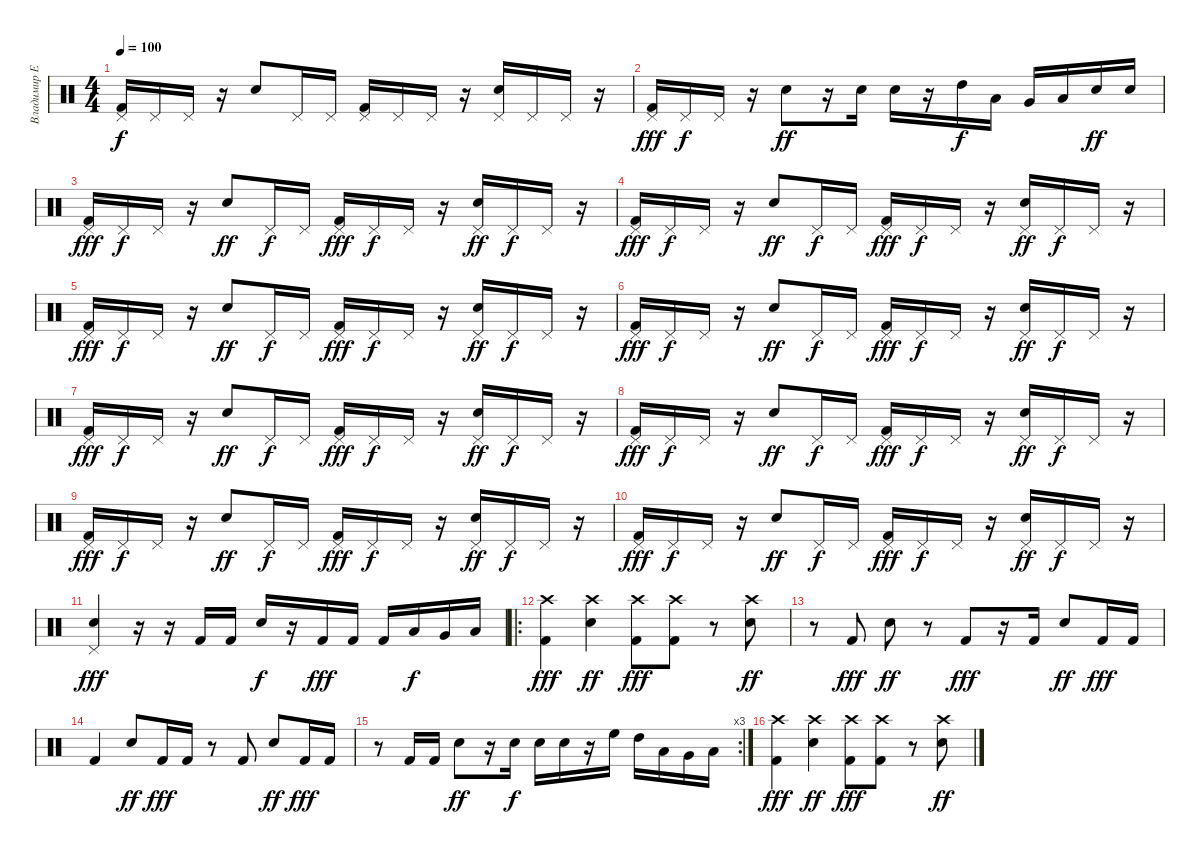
\track ("Владимир Ермаков" "Владимир Е") {instrument percussion}
\staff {score}
\articulation defaults
\ts (4 4)
\tempo 100
\clef neutral
\ks c
("Kick (hit) 2" "Pedal Hi-Hat (hit)").16{dy f} "Pedal Hi-Hat (hit)".16 "Pedal Hi-Hat (hit)".16 r.16 "Electric Snare (hit)".8 "Pedal Hi-Hat (hit)".16 "Pedal Hi-Hat (hit)".16 ("Kick (hit) 2" "Pedal Hi-Hat (hit)").16 "Pedal Hi-Hat (hit)".16 "Pedal Hi-Hat (hit)".16 r.16 ("Electric Snare (hit)" "Pedal Hi-Hat (hit)").16 "Pedal Hi-Hat (hit)".16 "Pedal Hi-Hat (hit)".16 r.16 |
("Kick (hit) 2" "Pedal Hi-Hat (hit)").16{dy fff} "Pedal Hi-Hat (hit)".16{dy f} "Pedal Hi-Hat (hit)".16 r.16 "Electric Snare (hit)".8{dy ff} r.16 "Electric Snare (hit)".16 "Electric Snare (hit)".16 r.16 "High Tom (hit)".16{dy f} "Low Tom (hit)".16 "Very Low Tom (hit)".16 "Low Floor Tom (hit)".16 "Electric Snare (hit)".16{dy ff} "Electric Snare (hit)".16 |
("Kick (hit) 2" "Pedal Hi-Hat (hit)").16{dy fff} "Pedal Hi-Hat (hit)".16{dy f} "Pedal Hi-Hat (hit)".16 r.16 "Electric Snare (hit)".8{dy ff} "Pedal Hi-Hat (hit)".16{dy f} "Pedal Hi-Hat (hit)".16 ("Kick (hit) 2" "Pedal Hi-Hat (hit)").16{dy fff} "Pedal Hi-Hat (hit)".16{dy f} "Pedal Hi-Hat (hit)".16 r.16 ("Electric Snare (hit)" "Pedal Hi-Hat (hit)").16{dy ff} "Pedal Hi-Hat (hit)".16{dy f} "Pedal Hi-Hat (hit)".16 r.16 |
("Kick (hit) 2" "Pedal Hi-Hat (hit)").16{dy fff} "Pedal Hi-Hat (hit)".16{dy f} "Pedal Hi-Hat (hit)".16 r.16 "Electric Snare (hit)".8{dy ff} "Pedal Hi-Hat (hit)".16{dy f} "Pedal Hi-Hat (hit)".16 ("Kick (hit) 2" "Pedal Hi-Hat (hit)").16{dy fff} "Pedal Hi-Hat (hit)".16{dy f} "Pedal Hi-Hat (hit)".16 r.16 ("Electric Snare (hit)" "Pedal Hi-Hat (hit)").16{dy ff} "Pedal Hi-Hat (hit)".16{dy f} "Pedal Hi-Hat (hit)".16 r.16 |
("Kick (hit) 2" "Pedal Hi-Hat (hit)").16{dy fff} "Pedal Hi-Hat (hit)".16{dy f} "Pedal Hi-Hat (hit)".16 r.16 "Electric Snare (hit)".8{dy ff} "Pedal Hi-Hat (hit)".16{dy f} "Pedal Hi-Hat (hit)".16 ("Kick (hit) 2" "Pedal Hi-Hat (hit)").16{dy fff} "Pedal Hi-Hat (hit)".16{dy f} "Pedal Hi-Hat (hit)".16 r.16 ("Electric Snare (hit)" "Pedal Hi-Hat (hit)").16{dy ff} "Pedal Hi-Hat (hit)".16{dy f} "Pedal Hi-Hat (hit)".16 r.16 |
("Kick (hit) 2" "Pedal Hi-Hat (hit)").16{dy fff} "Pedal Hi-Hat (hit)".16{dy f} "Pedal Hi-Hat (hit)".16 r.16 "Electric Snare (hit)".8{dy ff} "Pedal Hi-Hat (hit)".16{dy f} "Pedal Hi-Hat (hit)".16 ("Kick (hit) 2" "Pedal Hi-Hat (hit)").16{dy fff} "Pedal Hi-Hat (hit)".16{dy f} "Pedal Hi-Hat (hit)".16 r.16 ("Electric Snare (hit)" "Pedal Hi-Hat (hit)").16{dy ff} "Pedal Hi-Hat (hit)".16{dy f} "Pedal Hi-Hat (hit)".16 r.16 |
("Kick (hit) 2" "Pedal Hi-Hat (hit)").16{dy fff} "Pedal Hi-Hat (hit)".16{dy f} "Pedal Hi-Hat (hit)".16 r.16 "Electric Snare (hit)".8{dy ff} "Pedal Hi-Hat (hit)".16{dy f} "Pedal Hi-Hat (hit)".16 ("Kick (hit) 2" "Pedal Hi-Hat (hit)").16{dy fff} "Pedal Hi-Hat (hit)".16{dy f} "Pedal Hi-Hat (hit)".16 r.16 ("Electric Snare (hit)" "Pedal Hi-Hat (hit)").16{dy ff} "Pedal Hi-Hat (hit)".16{dy f} "Pedal Hi-Hat (hit)".16 r.16 |
("Kick (hit) 2" "Pedal Hi-Hat (hit)").16{dy fff} "Pedal Hi-Hat (hit)".16{dy f} "Pedal Hi-Hat (hit)".16 r.16 "Electric Snare (hit)".8{dy ff} "Pedal Hi-Hat (hit)".16{dy f} "Pedal Hi-Hat (hit)".16 ("Kick (hit) 2" "Pedal Hi-Hat (hit)").16{dy fff} "Pedal Hi-Hat (hit)".16{dy f} "Pedal Hi-Hat (hit)".16 r.16 ("Electric Snare (hit)" "Pedal Hi-Hat (hit)").16{dy ff} "Pedal Hi-Hat (hit)".16{dy f} "Pedal Hi-Hat (hit)".16 r.16 |
("Kick (hit) 2" "Pedal Hi-Hat (hit)").16{dy fff} "Pedal Hi-Hat (hit)".16{dy f} "Pedal Hi-Hat (hit)".16 r.16 "Electric Snare (hit)".8{dy ff} "Pedal Hi-Hat (hit)".16{dy f} "Pedal Hi-Hat (hit)".16 ("Kick (hit) 2" "Pedal Hi-Hat (hit)").16{dy fff} "Pedal Hi-Hat (hit)".16{dy f} "Pedal Hi-Hat (hit)".16 r.16 ("Electric Snare (hit)" "Pedal Hi-Hat (hit)").16{dy ff} "Pedal Hi-Hat (hit)".16{dy f} "Pedal Hi-Hat (hit)".16 r.16 |
("Kick (hit) 2" "Pedal Hi-Hat (hit)").16{dy fff} "Pedal Hi-Hat (hit)".16{dy f} "Pedal Hi-Hat (hit)".16 r.16 "Electric Snare (hit)".8{dy ff} "Pedal Hi-Hat (hit)".16{dy f} "Pedal Hi-Hat (hit)".16 ("Kick (hit) 2" "Pedal Hi-Hat (hit)").16{dy fff} "Pedal Hi-Hat (hit)".16{dy f} "Pedal Hi-Hat (hit)".16 r.16 ("Electric Snare (hit)" "Pedal Hi-Hat (hit)").16{dy ff} "Pedal Hi-Hat (hit)".16{dy f} "Pedal Hi-Hat (hit)".16 r.16 |
("Electric Snare (hit)" "Pedal Hi-Hat (hit)").4{dy fff} r.16 r.16 "Kick (hit) 2".16 "Kick (hit) 2".16 "Electric Snare (hit)".16{dy f} r.16 "Kick (hit) 2".16{dy fff} "Kick (hit) 2".16 "Kick (hit) 2".16 "Low Tom (hit)".16{dy f} "Very Low Tom (hit)".16 "Low Floor Tom (hit)".16 |
\ro
("Kick (hit) 2" "Crash high (hit)").4{dy fff} ("Electric Snare (hit)" "Crash high (hit)").4{dy ff} ("Kick (hit) 2" "Crash high (hit)").8{dy fff} ("Kick (hit) 2" "Crash high (hit)").8 r.8 ("Electric Snare (hit)" "Crash high (hit)").8{dy ff} |
r.8 "Kick (hit) 2".8{dy fff} "Electric Snare (hit)".8{dy ff} r.8 "Kick (hit) 2".8{dy fff} r.16 "Kick (hit) 2".16 "Electric Snare (hit)".8{dy ff} "Kick (hit) 2".16{dy fff} "Kick (hit) 2".16 |
"Kick (hit) 2".4 "Electric Snare (hit)".8{dy ff} "Kick (hit) 2".16{dy fff} "Kick (hit) 2".16 r.8 "Kick (hit) 2".8 "Electric Snare (hit)".8{dy ff} "Kick (hit) 2".16{dy fff} "Kick (hit) 2".16 |
\rc 3
r.8 "Kick (hit) 2".16 "Kick (hit) 2".16 "Electric Snare (hit)".8{dy ff} r.16 "Electric Snare (hit)".16{dy f} "Electric Snare (hit)".16 "Electric Snare (hit)".16 r.16 "High Floor Tom (hit)".16 "High Tom (hit)".16 "Low Tom (hit)".16 "Very Low Tom (hit)".16 "Low Floor Tom (hit)".16 |
("Kick (hit) 2" "Crash high (hit)").4{dy fff} ("Electric Snare (hit)" "Crash high (hit)").4{dy ff} ("Kick (hit) 2" "Crash high (hit)").8{dy fff} ("Kick (hit) 2" "Crash high (hit)").8 r.8 ("Electric Snare (hit)" "Crash high (hit)").8{dy ff}
